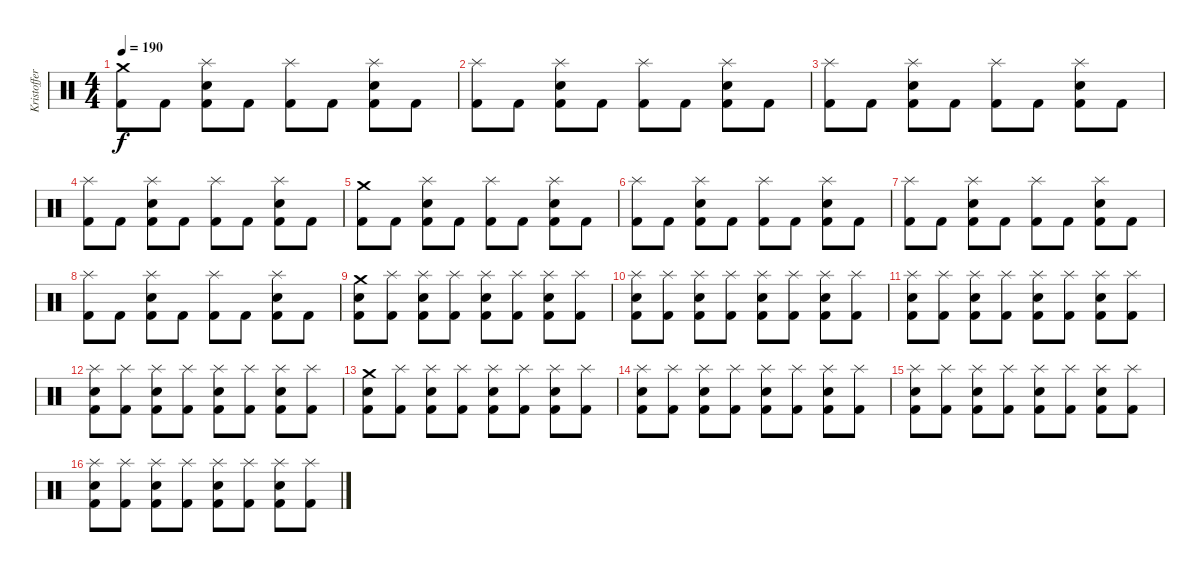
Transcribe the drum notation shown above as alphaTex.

\track ("Kristoffer (Drums)" "Kristoffer") {instrument percussion}
\staff {score}
\articulation defaults
\ts (4 4)
\tempo 190
\clef neutral
\ks c
("Kick (hit) 2" "Crash medium (hit)").8{dy f} "Kick (hit) 2".8 ("Kick (hit) 2" "Electric Snare (hit)" "Splash (hit)").8 "Kick (hit) 2".8 ("Kick (hit) 2" "Splash (hit)").8 "Kick (hit) 2".8 ("Kick (hit) 2" "Electric Snare (hit)" "Splash (hit)").8 "Kick (hit) 2".8 |
("Kick (hit) 2" "Splash (hit)").8 "Kick (hit) 2".8 ("Kick (hit) 2" "Electric Snare (hit)" "Splash (hit)").8 "Kick (hit) 2".8 ("Kick (hit) 2" "Splash (hit)").8 "Kick (hit) 2".8 ("Kick (hit) 2" "Electric Snare (hit)" "Splash (hit)").8 "Kick (hit) 2".8 |
("Kick (hit) 2" "Splash (hit)").8 "Kick (hit) 2".8 ("Kick (hit) 2" "Electric Snare (hit)" "Splash (hit)").8 "Kick (hit) 2".8 ("Kick (hit) 2" "Splash (hit)").8 "Kick (hit) 2".8 ("Kick (hit) 2" "Electric Snare (hit)" "Splash (hit)").8 "Kick (hit) 2".8 |
("Kick (hit) 2" "Splash (hit)").8 "Kick (hit) 2".8 ("Kick (hit) 2" "Electric Snare (hit)" "Splash (hit)").8 "Kick (hit) 2".8 ("Kick (hit) 2" "Splash (hit)").8 "Kick (hit) 2".8 ("Kick (hit) 2" "Electric Snare (hit)" "Splash (hit)").8 "Kick (hit) 2".8 |
("Kick (hit) 2" "Crash medium (hit)").8 "Kick (hit) 2".8 ("Kick (hit) 2" "Electric Snare (hit)" "Splash (hit)").8 "Kick (hit) 2".8 ("Kick (hit) 2" "Splash (hit)").8 "Kick (hit) 2".8 ("Kick (hit) 2" "Electric Snare (hit)" "Splash (hit)").8 "Kick (hit) 2".8 |
("Kick (hit) 2" "Splash (hit)").8 "Kick (hit) 2".8 ("Kick (hit) 2" "Electric Snare (hit)" "Splash (hit)").8 "Kick (hit) 2".8 ("Kick (hit) 2" "Splash (hit)").8 "Kick (hit) 2".8 ("Kick (hit) 2" "Electric Snare (hit)" "Splash (hit)").8 "Kick (hit) 2".8 |
("Kick (hit) 2" "Splash (hit)").8 "Kick (hit) 2".8 ("Kick (hit) 2" "Electric Snare (hit)" "Splash (hit)").8 "Kick (hit) 2".8 ("Kick (hit) 2" "Splash (hit)").8 "Kick (hit) 2".8 ("Kick (hit) 2" "Electric Snare (hit)" "Splash (hit)").8 "Kick (hit) 2".8 |
("Kick (hit) 2" "Splash (hit)").8 "Kick (hit) 2".8 ("Kick (hit) 2" "Electric Snare (hit)" "Splash (hit)").8 "Kick (hit) 2".8 ("Kick (hit) 2" "Splash (hit)").8 "Kick (hit) 2".8 ("Kick (hit) 2" "Electric Snare (hit)" "Splash (hit)").8 "Kick (hit) 2".8 |
("Kick (hit) 2" "Electric Snare (hit)" "Crash medium (hit)").8 ("Kick (hit) 2" "Splash (hit)").8 ("Kick (hit) 2" "Electric Snare (hit)" "Splash (hit)").8 ("Kick (hit) 2" "Splash (hit)").8 ("Kick (hit) 2" "Electric Snare (hit)" "Splash (hit)").8 ("Kick (hit) 2" "Splash (hit)").8 ("Kick (hit) 2" "Electric Snare (hit)" "Splash (hit)").8 ("Kick (hit) 2" "Splash (hit)").8 |
("Kick (hit) 2" "Electric Snare (hit)" "Splash (hit)").8 ("Kick (hit) 2" "Splash (hit)").8 ("Kick (hit) 2" "Electric Snare (hit)" "Splash (hit)").8 ("Kick (hit) 2" "Splash (hit)").8 ("Kick (hit) 2" "Electric Snare (hit)" "Splash (hit)").8 ("Kick (hit) 2" "Splash (hit)").8 ("Kick (hit) 2" "Electric Snare (hit)" "Splash (hit)").8 ("Kick (hit) 2" "Splash (hit)").8 |
("Kick (hit) 2" "Electric Snare (hit)" "Splash (hit)").8 ("Kick (hit) 2" "Splash (hit)").8 ("Kick (hit) 2" "Electric Snare (hit)" "Splash (hit)").8 ("Kick (hit) 2" "Splash (hit)").8 ("Kick (hit) 2" "Electric Snare (hit)" "Splash (hit)").8 ("Kick (hit) 2" "Splash (hit)").8 ("Kick (hit) 2" "Electric Snare (hit)" "Splash (hit)").8 ("Kick (hit) 2" "Splash (hit)").8 |
("Kick (hit) 2" "Electric Snare (hit)" "Splash (hit)").8 ("Kick (hit) 2" "Splash (hit)").8 ("Kick (hit) 2" "Electric Snare (hit)" "Splash (hit)").8 ("Kick (hit) 2" "Splash (hit)").8 ("Kick (hit) 2" "Electric Snare (hit)" "Splash (hit)").8 ("Kick (hit) 2" "Splash (hit)").8 ("Kick (hit) 2" "Electric Snare (hit)" "Splash (hit)").8 ("Kick (hit) 2" "Splash (hit)").8 |
("Kick (hit) 2" "Electric Snare (hit)" "Crash medium (hit)").8 ("Kick (hit) 2" "Splash (hit)").8 ("Kick (hit) 2" "Electric Snare (hit)" "Splash (hit)").8 ("Kick (hit) 2" "Splash (hit)").8 ("Kick (hit) 2" "Electric Snare (hit)" "Splash (hit)").8 ("Kick (hit) 2" "Splash (hit)").8 ("Kick (hit) 2" "Electric Snare (hit)" "Splash (hit)").8 ("Kick (hit) 2" "Splash (hit)").8 |
("Kick (hit) 2" "Electric Snare (hit)" "Splash (hit)").8 ("Kick (hit) 2" "Splash (hit)").8 ("Kick (hit) 2" "Electric Snare (hit)" "Splash (hit)").8 ("Kick (hit) 2" "Splash (hit)").8 ("Kick (hit) 2" "Electric Snare (hit)" "Splash (hit)").8 ("Kick (hit) 2" "Splash (hit)").8 ("Kick (hit) 2" "Electric Snare (hit)" "Splash (hit)").8 ("Kick (hit) 2" "Splash (hit)").8 |
("Kick (hit) 2" "Electric Snare (hit)" "Splash (hit)").8 ("Kick (hit) 2" "Splash (hit)").8 ("Kick (hit) 2" "Electric Snare (hit)" "Splash (hit)").8 ("Kick (hit) 2" "Splash (hit)").8 ("Kick (hit) 2" "Electric Snare (hit)" "Splash (hit)").8 ("Kick (hit) 2" "Splash (hit)").8 ("Kick (hit) 2" "Electric Snare (hit)" "Splash (hit)").8 ("Kick (hit) 2" "Splash (hit)").8 |
("Kick (hit) 2" "Electric Snare (hit)" "Splash (hit)").8 ("Kick (hit) 2" "Splash (hit)").8 ("Kick (hit) 2" "Electric Snare (hit)" "Splash (hit)").8 ("Kick (hit) 2" "Splash (hit)").8 ("Kick (hit) 2" "Electric Snare (hit)" "Splash (hit)").8 ("Kick (hit) 2" "Splash (hit)").8 ("Kick (hit) 2" "Electric Snare (hit)" "Splash (hit)").8 ("Kick (hit) 2" "Splash (hit)").8
